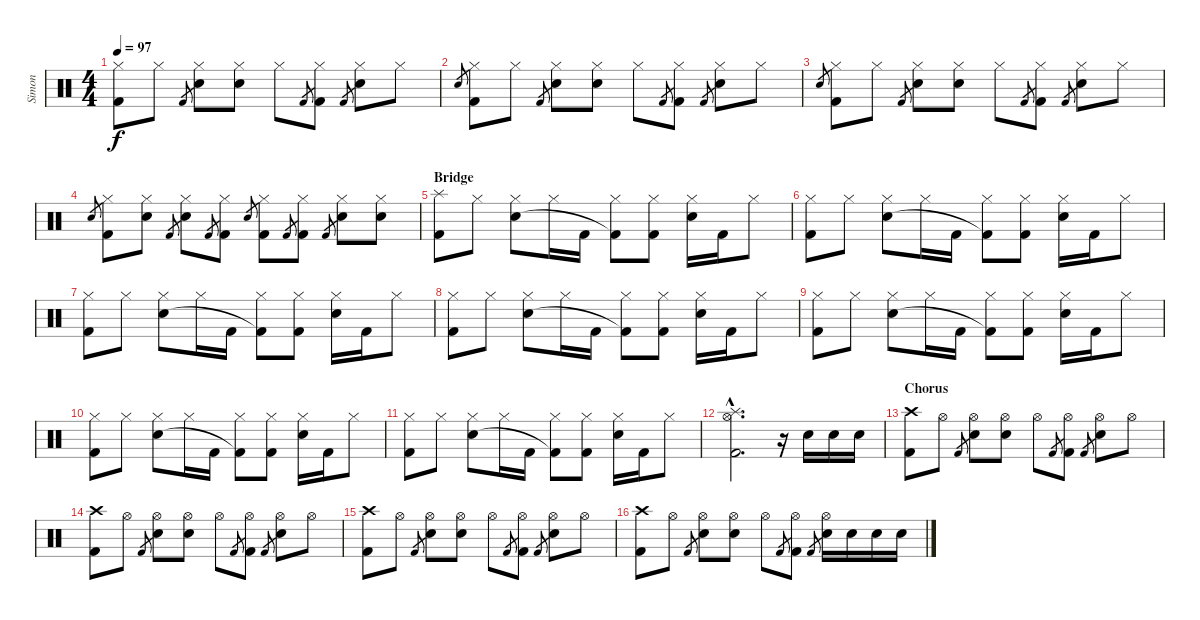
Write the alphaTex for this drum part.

\track ("Simon" "Simon") {instrument percussion}
\staff {score}
\articulation defaults
\ts (4 4)
\tempo 97
\clef neutral
\ks c
("Hi-Hat (closed)" "Kick (hit) 2").8{dy f} "Hi-Hat (closed)".8 "Kick (hit) 2".8{gr} ("Hi-Hat (closed)" "Electric Snare (hit)").8 ("Hi-Hat (closed)" "Electric Snare (hit)").8 "Hi-Hat (closed)".8 "Kick (hit) 2".8{gr} ("Hi-Hat (closed)" "Kick (hit) 2").8 "Kick (hit) 2".8{gr} ("Hi-Hat (closed)" "Electric Snare (hit)").8 "Hi-Hat (closed)".8 |
"Electric Snare (hit)".8{gr} ("Hi-Hat (closed)" "Kick (hit) 2").8 "Hi-Hat (closed)".8 "Kick (hit) 2".8{gr} ("Hi-Hat (closed)" "Electric Snare (hit)").8 ("Hi-Hat (closed)" "Electric Snare (hit)").8 "Hi-Hat (closed)".8 "Kick (hit) 2".8{gr} ("Hi-Hat (closed)" "Kick (hit) 2").8 "Kick (hit) 2".8{gr} ("Hi-Hat (closed)" "Electric Snare (hit)").8 "Hi-Hat (closed)".8 |
"Electric Snare (hit)".8{gr} ("Hi-Hat (closed)" "Kick (hit) 2").8 "Hi-Hat (closed)".8 "Kick (hit) 2".8{gr} ("Hi-Hat (closed)" "Electric Snare (hit)").8 ("Hi-Hat (closed)" "Electric Snare (hit)").8 "Hi-Hat (closed)".8 "Kick (hit) 2".8{gr} ("Hi-Hat (closed)" "Kick (hit) 2").8 "Kick (hit) 2".8{gr} ("Hi-Hat (closed)" "Electric Snare (hit)").8 "Hi-Hat (closed)".8 |
"Electric Snare (hit)".8{gr} ("Hi-Hat (closed)" "Kick (hit) 2").8 ("Hi-Hat (closed)" "Electric Snare (hit)").8 "Kick (hit) 2".8{gr} ("Hi-Hat (closed)" "Electric Snare (hit)").8 "Kick (hit) 2".8{gr} ("Hi-Hat (closed)" "Kick (hit) 2").8 "Electric Snare (hit)".8{gr} ("Hi-Hat (closed)" "Kick (hit) 2").8 "Kick (hit) 2".8{gr} ("Hi-Hat (closed)" "Kick (hit) 2").8 "Kick (hit) 2".8{gr} ("Hi-Hat (closed)" "Electric Snare (hit)").8 ("Hi-Hat (closed)" "Electric Snare (hit)").8 |
\section ("" "Bridge")
("Splash (hit)" "Kick (hit) 2").8 "Hi-Hat (closed)".8 ("Hi-Hat (closed)" "Electric Snare (hit)").8 "Hi-Hat (closed)".16 "Kick (hit) 2".16 ("Hi-Hat (closed)" "Kick (hit) 2"{t}).8 ("Hi-Hat (closed)" "Kick (hit) 2").8 ("Hi-Hat (closed)" "Electric Snare (hit)").16 "Kick (hit) 2".16 "Hi-Hat (closed)".8 |
("Hi-Hat (closed)" "Kick (hit) 2").8 "Hi-Hat (closed)".8 ("Hi-Hat (closed)" "Electric Snare (hit)").8 "Hi-Hat (closed)".16 "Kick (hit) 2".16 ("Hi-Hat (closed)" "Kick (hit) 2"{t}).8 ("Hi-Hat (closed)" "Kick (hit) 2").8 ("Hi-Hat (closed)" "Electric Snare (hit)").16 "Kick (hit) 2".16 "Hi-Hat (closed)".8 |
("Hi-Hat (closed)" "Kick (hit) 2").8 "Hi-Hat (closed)".8 ("Hi-Hat (closed)" "Electric Snare (hit)").8 "Hi-Hat (closed)".16 "Kick (hit) 2".16 ("Hi-Hat (closed)" "Kick (hit) 2"{t}).8 ("Hi-Hat (closed)" "Kick (hit) 2").8 ("Hi-Hat (closed)" "Electric Snare (hit)").16 "Kick (hit) 2".16 "Hi-Hat (closed)".8 |
("Hi-Hat (closed)" "Kick (hit) 2").8 "Hi-Hat (closed)".8 ("Hi-Hat (closed)" "Electric Snare (hit)").8 "Hi-Hat (closed)".16 "Kick (hit) 2".16 ("Hi-Hat (closed)" "Kick (hit) 2"{t}).8 ("Hi-Hat (closed)" "Kick (hit) 2").8 ("Hi-Hat (closed)" "Electric Snare (hit)").16 "Kick (hit) 2".16 "Hi-Hat (closed)".8 |
("Hi-Hat (closed)" "Kick (hit) 2").8 "Hi-Hat (closed)".8 ("Hi-Hat (closed)" "Electric Snare (hit)").8 "Hi-Hat (closed)".16 "Kick (hit) 2".16 ("Hi-Hat (closed)" "Kick (hit) 2"{t}).8 ("Hi-Hat (closed)" "Kick (hit) 2").8 ("Hi-Hat (closed)" "Electric Snare (hit)").16 "Kick (hit) 2".16 "Hi-Hat (closed)".8 |
("Hi-Hat (closed)" "Kick (hit) 2").8 "Hi-Hat (closed)".8 ("Hi-Hat (closed)" "Electric Snare (hit)").8 "Hi-Hat (closed)".16 "Kick (hit) 2".16 ("Hi-Hat (closed)" "Kick (hit) 2"{t}).8 ("Hi-Hat (closed)" "Kick (hit) 2").8 ("Hi-Hat (closed)" "Electric Snare (hit)").16 "Kick (hit) 2".16 "Hi-Hat (closed)".8 |
("Hi-Hat (closed)" "Kick (hit) 2").8 "Hi-Hat (closed)".8 ("Hi-Hat (closed)" "Electric Snare (hit)").8 "Hi-Hat (closed)".16 "Kick (hit) 2".16 ("Hi-Hat (closed)" "Kick (hit) 2"{t}).8 ("Hi-Hat (closed)" "Kick (hit) 2").8 ("Hi-Hat (closed)" "Electric Snare (hit)").16 "Kick (hit) 2".16 "Hi-Hat (closed)".8 |
("Splash (hit)"{hac} "Hi-Hat (open)"{hac} "Kick (hit) 2"{hac}).2{d} r.16 "Electric Snare (hit)".16 "Electric Snare (hit)".16 "Electric Snare (hit)".16 |
\section ("" "Chorus")
("Crash high (hit)" "Kick (hit) 2").8 "Hi-Hat (open)".8 "Kick (hit) 2".8{gr} ("Hi-Hat (open)" "Electric Snare (hit)").8 ("Hi-Hat (open)" "Electric Snare (hit)").8 "Hi-Hat (open)".8 "Kick (hit) 2".8{gr} ("Hi-Hat (open)" "Kick (hit) 2").8 "Kick (hit) 2".8{gr} ("Hi-Hat (open)" "Electric Snare (hit)").8 "Hi-Hat (open)".8 |
("Crash high (hit)" "Kick (hit) 2").8 "Hi-Hat (open)".8 "Kick (hit) 2".8{gr} ("Hi-Hat (open)" "Electric Snare (hit)").8 ("Hi-Hat (open)" "Electric Snare (hit)").8 "Hi-Hat (open)".8 "Kick (hit) 2".8{gr} ("Hi-Hat (open)" "Kick (hit) 2").8 "Kick (hit) 2".8{gr} ("Hi-Hat (open)" "Electric Snare (hit)").8 "Hi-Hat (open)".8 |
("Crash high (hit)" "Kick (hit) 2").8 "Hi-Hat (open)".8 "Kick (hit) 2".8{gr} ("Hi-Hat (open)" "Electric Snare (hit)").8 ("Hi-Hat (open)" "Electric Snare (hit)").8 "Hi-Hat (open)".8 "Kick (hit) 2".8{gr} ("Hi-Hat (open)" "Kick (hit) 2").8 "Kick (hit) 2".8{gr} ("Hi-Hat (open)" "Electric Snare (hit)").8 "Hi-Hat (open)".8 |
("Crash high (hit)" "Kick (hit) 2").8 "Hi-Hat (open)".8 "Kick (hit) 2".8{gr} ("Hi-Hat (open)" "Electric Snare (hit)").8 ("Hi-Hat (open)" "Electric Snare (hit)").8 "Hi-Hat (open)".8 "Kick (hit) 2".8{gr} ("Hi-Hat (open)" "Kick (hit) 2").8 "Kick (hit) 2".8{gr} ("Hi-Hat (open)" "Electric Snare (hit)").16 "Electric Snare (hit)".16 "Electric Snare (hit)".16 "Electric Snare (hit)".16
